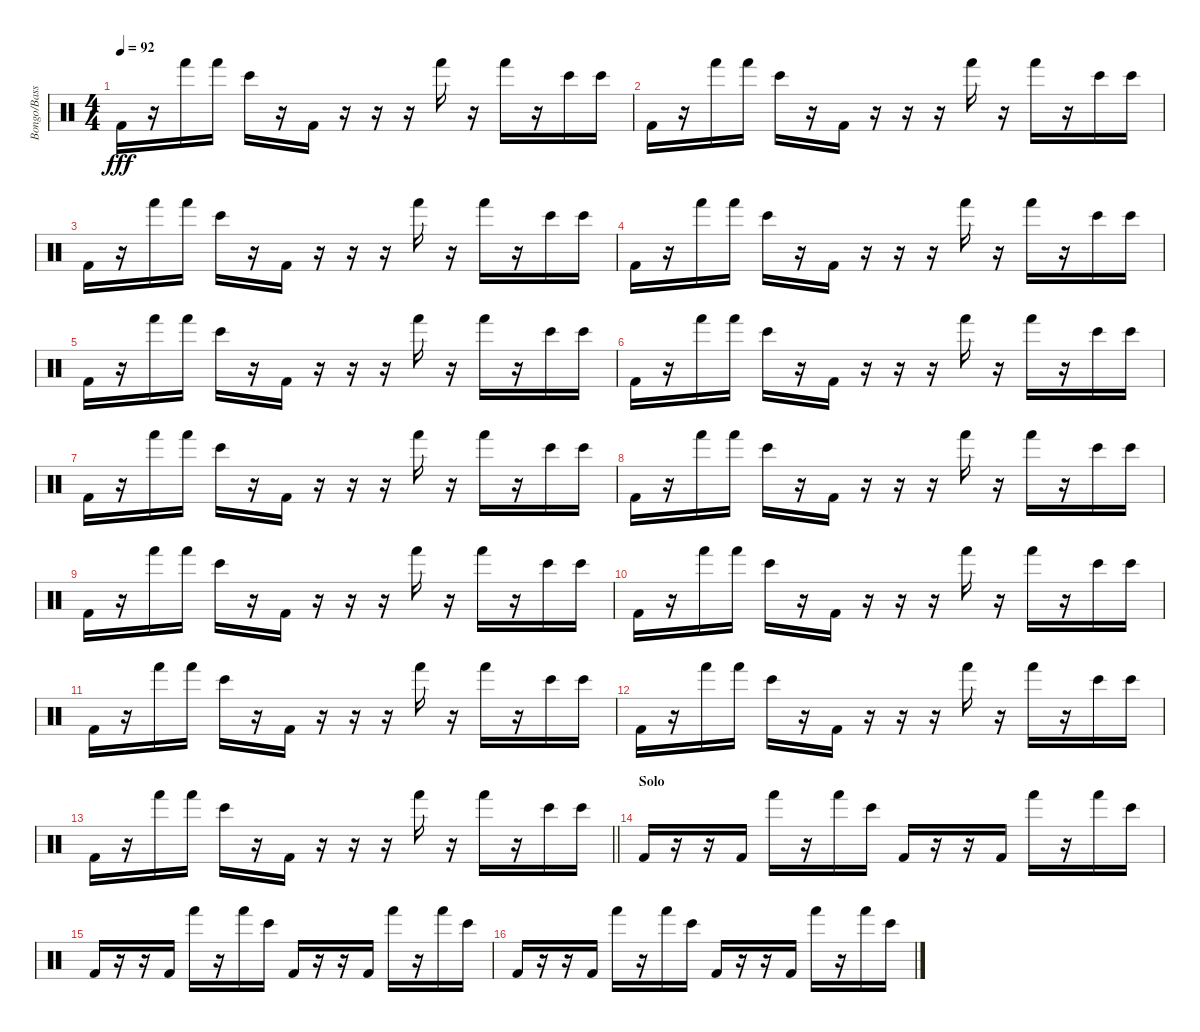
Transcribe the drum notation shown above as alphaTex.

\track ("Bongo/Bass Drum" "Bongo/Bass") {instrument percussion}
\staff
\articulation defaults
\ts (4 4)
\tempo 92
\clef neutral
\ks c "Kick (hit) 2".16{dy fff}
r.16 "Hand (hit)".16 "Hand (hit)".16 "Bongo High (hit)".16 r.16 "Kick (hit) 2".16 r.16 r.16 r.16 "Hand (hit)".16 r.16 "Hand (hit)".16 r.16 "Bongo High (hit)".16 "Bongo High (hit)".16 |
"Kick (hit) 2".16 r.16 "Hand (hit)".16 "Hand (hit)".16 "Bongo High (hit)".16 r.16 "Kick (hit) 2".16 r.16 r.16 r.16 "Hand (hit)".16 r.16 "Hand (hit)".16 r.16 "Bongo High (hit)".16 "Bongo High (hit)".16 |
"Kick (hit) 2".16 r.16 "Hand (hit)".16 "Hand (hit)".16 "Bongo High (hit)".16 r.16 "Kick (hit) 2".16 r.16 r.16 r.16 "Hand (hit)".16 r.16 "Hand (hit)".16 r.16 "Bongo High (hit)".16 "Bongo High (hit)".16 |
"Kick (hit) 2".16 r.16 "Hand (hit)".16 "Hand (hit)".16 "Bongo High (hit)".16 r.16 "Kick (hit) 2".16 r.16 r.16 r.16 "Hand (hit)".16 r.16 "Hand (hit)".16 r.16 "Bongo High (hit)".16 "Bongo High (hit)".16 |
"Kick (hit) 2".16 r.16 "Hand (hit)".16 "Hand (hit)".16 "Bongo High (hit)".16 r.16 "Kick (hit) 2".16 r.16 r.16 r.16 "Hand (hit)".16 r.16 "Hand (hit)".16 r.16 "Bongo High (hit)".16 "Bongo High (hit)".16 |
"Kick (hit) 2".16 r.16 "Hand (hit)".16 "Hand (hit)".16 "Bongo High (hit)".16 r.16 "Kick (hit) 2".16 r.16 r.16 r.16 "Hand (hit)".16 r.16 "Hand (hit)".16 r.16 "Bongo High (hit)".16 "Bongo High (hit)".16 |
"Kick (hit) 2".16 r.16 "Hand (hit)".16 "Hand (hit)".16 "Bongo High (hit)".16 r.16 "Kick (hit) 2".16 r.16 r.16 r.16 "Hand (hit)".16 r.16 "Hand (hit)".16 r.16 "Bongo High (hit)".16 "Bongo High (hit)".16 |
"Kick (hit) 2".16 r.16 "Hand (hit)".16 "Hand (hit)".16 "Bongo High (hit)".16 r.16 "Kick (hit) 2".16 r.16 r.16 r.16 "Hand (hit)".16 r.16 "Hand (hit)".16 r.16 "Bongo High (hit)".16 "Bongo High (hit)".16 |
"Kick (hit) 2".16 r.16 "Hand (hit)".16 "Hand (hit)".16 "Bongo High (hit)".16 r.16 "Kick (hit) 2".16 r.16 r.16 r.16 "Hand (hit)".16 r.16 "Hand (hit)".16 r.16 "Bongo High (hit)".16 "Bongo High (hit)".16 |
"Kick (hit) 2".16 r.16 "Hand (hit)".16 "Hand (hit)".16 "Bongo High (hit)".16 r.16 "Kick (hit) 2".16 r.16 r.16 r.16 "Hand (hit)".16 r.16 "Hand (hit)".16 r.16 "Bongo High (hit)".16 "Bongo High (hit)".16 |
"Kick (hit) 2".16 r.16 "Hand (hit)".16 "Hand (hit)".16 "Bongo High (hit)".16 r.16 "Kick (hit) 2".16 r.16 r.16 r.16 "Hand (hit)".16 r.16 "Hand (hit)".16 r.16 "Bongo High (hit)".16 "Bongo High (hit)".16 |
"Kick (hit) 2".16 r.16 "Hand (hit)".16 "Hand (hit)".16 "Bongo High (hit)".16 r.16 "Kick (hit) 2".16 r.16 r.16 r.16 "Hand (hit)".16 r.16 "Hand (hit)".16 r.16 "Bongo High (hit)".16 "Bongo High (hit)".16 |
\barLineRight lightlight "Kick (hit) 2".16
r.16 "Hand (hit)".16 "Hand (hit)".16 "Bongo High (hit)".16 r.16 "Kick (hit) 2".16 r.16 r.16 r.16 "Hand (hit)".16 r.16 "Hand (hit)".16 r.16 "Bongo High (hit)".16 "Bongo High (hit)".16 |
\section ("" "Solo")
"Kick (hit) 2".16 r.16 r.16 "Kick (hit) 2".16 "Hand (hit)".16 r.16 "Hand (hit)".16 "Bongo High (hit)".16 "Kick (hit) 2".16 r.16 r.16 "Kick (hit) 2".16 "Hand (hit)".16 r.16 "Hand (hit)".16 "Bongo High (hit)".16 |
"Kick (hit) 2".16 r.16 r.16 "Kick (hit) 2".16 "Hand (hit)".16 r.16 "Hand (hit)".16 "Bongo High (hit)".16 "Kick (hit) 2".16 r.16 r.16 "Kick (hit) 2".16 "Hand (hit)".16 r.16 "Hand (hit)".16 "Bongo High (hit)".16 |
"Kick (hit) 2".16 r.16 r.16 "Kick (hit) 2".16 "Hand (hit)".16 r.16 "Hand (hit)".16 "Bongo High (hit)".16 "Kick (hit) 2".16 r.16 r.16 "Kick (hit) 2".16 "Hand (hit)".16 r.16 "Hand (hit)".16 "Bongo High (hit)".16
